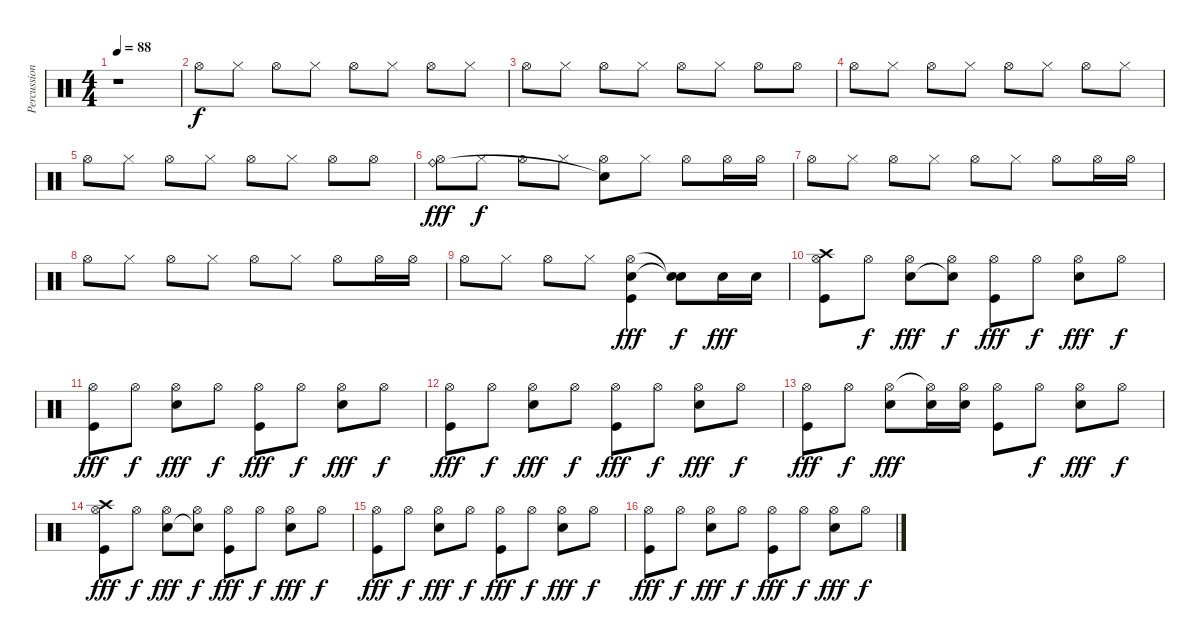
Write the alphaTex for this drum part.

\track ("Percussions" "Percussion") {instrument percussion}
\staff {score}
\articulation defaults
\ts (4 4)
\tempo 88
\clef neutral
\ks c
r.1{dy f} |
"Hi-Hat (open)".8 "Hi-Hat (closed)".8 "Hi-Hat (open)".8 "Hi-Hat (closed)".8 "Hi-Hat (open)".8 "Hi-Hat (closed)".8 "Hi-Hat (open)".8 "Hi-Hat (closed)".8 |
"Hi-Hat (open)".8 "Hi-Hat (closed)".8 "Hi-Hat (open)".8 "Hi-Hat (closed)".8 "Hi-Hat (open)".8 "Hi-Hat (closed)".8 "Hi-Hat (open)".8 "Hi-Hat (open)".8 |
"Hi-Hat (open)".8 "Hi-Hat (closed)".8 "Hi-Hat (open)".8 "Hi-Hat (closed)".8 "Hi-Hat (open)".8 "Hi-Hat (closed)".8 "Hi-Hat (open)".8 "Hi-Hat (closed)".8 |
"Hi-Hat (open)".8 "Hi-Hat (closed)".8 "Hi-Hat (open)".8 "Hi-Hat (closed)".8 "Hi-Hat (open)".8 "Hi-Hat (closed)".8 "Hi-Hat (open)".8 "Hi-Hat (open)".8 |
("Hi-Hat (open)" "Ride (bell)").8{dy fff} "Hi-Hat (closed)".8{dy f} "Hi-Hat (open)".8 "Hi-Hat (closed)".8 ("Hi-Hat (open)" "Snare (hit)"{t}).8 "Hi-Hat (closed)".8 "Hi-Hat (open)".8 "Hi-Hat (open)".16 "Hi-Hat (open)".16 |
"Hi-Hat (open)".8 "Hi-Hat (closed)".8 "Hi-Hat (open)".8 "Hi-Hat (closed)".8 "Hi-Hat (open)".8 "Hi-Hat (closed)".8 "Hi-Hat (open)".8 "Hi-Hat (open)".16 "Hi-Hat (open)".16 |
"Hi-Hat (open)".8 "Hi-Hat (closed)".8 "Hi-Hat (open)".8 "Hi-Hat (closed)".8 "Hi-Hat (open)".8 "Hi-Hat (closed)".8 "Hi-Hat (open)".8 "Hi-Hat (open)".16 "Hi-Hat (open)".16 |
"Hi-Hat (open)".8 "Hi-Hat (closed)".8 "Hi-Hat (open)".8 "Hi-Hat (closed)".8 ("Hi-Hat (open)" "Snare (hit) 2" "Kick (hit)").4{dy fff} ("Snare (hit)"{t} "Snare (hit)"{t}).8{dy f} "Snare (hit) 2".16{dy fff} "Snare (hit) 2".16 |
("Hi-Hat (open)" "Kick (hit)" "Crash high (hit)").8 "Hi-Hat (open)".8{dy f} ("Hi-Hat (open)" "Snare (hit) 2").8{dy fff} ("Hi-Hat (open)" "Snare (hit)"{t}).8{dy f} ("Hi-Hat (open)" "Kick (hit)").8{dy fff} "Hi-Hat (open)".8{dy f} ("Hi-Hat (open)" "Snare (hit) 2").8{dy fff} "Hi-Hat (open)".8{dy f} |
("Hi-Hat (open)" "Kick (hit)").8{dy fff} "Hi-Hat (open)".8{dy f} ("Hi-Hat (open)" "Snare (hit) 2").8{dy fff} "Hi-Hat (open)".8{dy f} ("Hi-Hat (open)" "Kick (hit)").8{dy fff} "Hi-Hat (open)".8{dy f} ("Hi-Hat (open)" "Snare (hit) 2").8{dy fff} "Hi-Hat (open)".8{dy f} |
("Hi-Hat (open)" "Kick (hit)").8{dy fff} "Hi-Hat (open)".8{dy f} ("Hi-Hat (open)" "Snare (hit) 2").8{dy fff} "Hi-Hat (open)".8{dy f} ("Hi-Hat (open)" "Kick (hit)").8{dy fff} "Hi-Hat (open)".8{dy f} ("Hi-Hat (open)" "Snare (hit) 2").8{dy fff} "Hi-Hat (open)".8{dy f} |
("Hi-Hat (open)" "Kick (hit)").8{dy fff} "Hi-Hat (open)".8{dy f} ("Hi-Hat (open)" "Snare (hit) 2").8{dy fff} ("Hi-Hat (open)"{t} "Snare (hit) 2").16 ("Hi-Hat (open)" "Snare (hit) 2").16 ("Hi-Hat (open)" "Kick (hit)").8 "Hi-Hat (open)".8{dy f} ("Hi-Hat (open)" "Snare (hit) 2").8{dy fff} "Hi-Hat (open)".8{dy f} |
("Hi-Hat (open)" "Kick (hit)" "Crash high (hit)").8{dy fff} "Hi-Hat (open)".8{dy f} ("Hi-Hat (open)" "Snare (hit) 2").8{dy fff} ("Hi-Hat (open)" "Snare (hit)"{t}).8{dy f} ("Hi-Hat (open)" "Kick (hit)").8{dy fff} "Hi-Hat (open)".8{dy f} ("Hi-Hat (open)" "Snare (hit) 2").8{dy fff} "Hi-Hat (open)".8{dy f} |
("Hi-Hat (open)" "Kick (hit)").8{dy fff} "Hi-Hat (open)".8{dy f} ("Hi-Hat (open)" "Snare (hit) 2").8{dy fff} "Hi-Hat (open)".8{dy f} ("Hi-Hat (open)" "Kick (hit)").8{dy fff} "Hi-Hat (open)".8{dy f} ("Hi-Hat (open)" "Snare (hit) 2").8{dy fff} "Hi-Hat (open)".8{dy f} |
("Hi-Hat (open)" "Kick (hit)").8{dy fff} "Hi-Hat (open)".8{dy f} ("Hi-Hat (open)" "Snare (hit) 2").8{dy fff} "Hi-Hat (open)".8{dy f} ("Hi-Hat (open)" "Kick (hit)").8{dy fff} "Hi-Hat (open)".8{dy f} ("Hi-Hat (open)" "Snare (hit) 2").8{dy fff} "Hi-Hat (open)".8{dy f}
